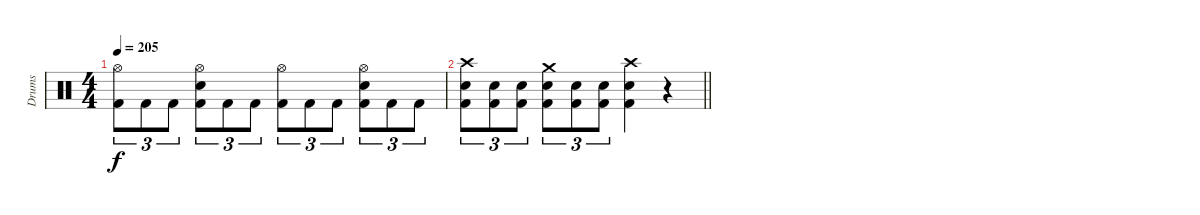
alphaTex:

\track ("Drums" "Drums") {instrument percussion}
\staff {score}
\articulation defaults
\ts (4 4)
\tempo 205
\clef neutral
\ks c
("Hi-Hat (open)" "Kick (hit) 2").8{tu (3 2) dy f} "Kick (hit) 2".8{tu (3 2)} "Kick (hit) 2".8{tu (3 2)} ("Hi-Hat (open)" "Snare (hit) 2" "Kick (hit) 2").8{tu (3 2)} "Kick (hit) 2".8{tu (3 2)} "Kick (hit) 2".8{tu (3 2)} ("Hi-Hat (open)" "Kick (hit) 2").8{tu (3 2)} "Kick (hit) 2".8{tu (3 2)} "Kick (hit) 2".8{tu (3 2)} ("Hi-Hat (open)" "Snare (hit) 2" "Kick (hit) 2").8{tu (3 2)} "Kick (hit) 2".8{tu (3 2)} "Kick (hit) 2".8{tu (3 2)} |
\barLineRight lightlight
("Crash high (hit)" "Snare (hit) 2" "Kick (hit) 2").8{tu (3 2)} ("Snare (hit) 2" "Kick (hit) 2").8{tu (3 2)} ("Snare (hit) 2" "Kick (hit) 2").8{tu (3 2)} ("Crash medium (hit)" "Snare (hit) 2" "Kick (hit) 2").8{tu (3 2)} ("Snare (hit) 2" "Kick (hit) 2").8{tu (3 2)} ("Snare (hit) 2" "Kick (hit) 2").8{tu (3 2)} ("Crash high (hit)" "Snare (hit) 2" "Kick (hit) 2").4 r.4
